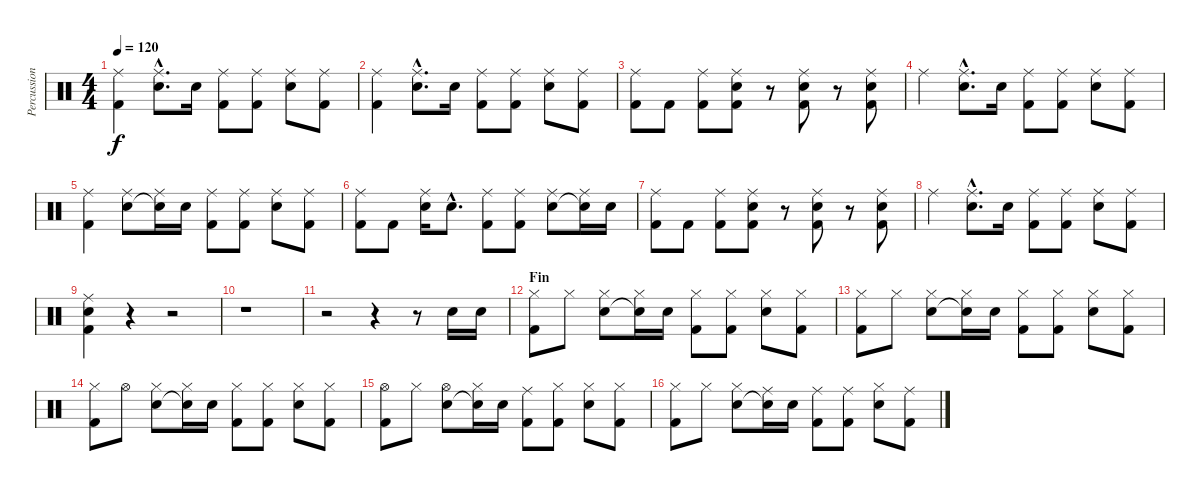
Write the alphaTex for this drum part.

\track ("Percussions" "Percussion") {instrument percussion}
\staff {score}
\articulation defaults
\ts (4 4)
\tempo 120
\clef neutral
\ks c
("Ride (middle)" "Kick (hit) 2").4{dy f} ("Ride (middle)"{hac} "Snare (hit) 2"{hac}).8{d} "Snare (hit) 2".16 ("Ride (middle)" "Kick (hit) 2").8 ("Ride (middle)" "Kick (hit) 2").8 ("Ride (middle)" "Snare (hit) 2").8 ("Ride (middle)" "Kick (hit) 2").8 |
("Ride (middle)" "Kick (hit) 2").4 ("Ride (middle)"{hac} "Snare (hit) 2"{hac}).8{d} "Snare (hit) 2".16 ("Ride (middle)" "Kick (hit) 2").8 ("Ride (middle)" "Kick (hit) 2").8 ("Ride (middle)" "Snare (hit) 2").8 ("Ride (middle)" "Kick (hit) 2").8 |
("Ride (middle)" "Kick (hit) 2").8 "Kick (hit) 2".8 ("Ride (middle)" "Kick (hit) 2").8 ("Ride (middle)" "Snare (hit) 2" "Kick (hit) 2").8 r.8 ("Ride (middle)" "Snare (hit) 2" "Kick (hit) 2").8 r.8 ("Ride (middle)" "Snare (hit) 2" "Kick (hit) 2").8 |
"Ride (middle)".4 ("Ride (middle)"{hac} "Snare (hit) 2"{hac}).8{d} "Snare (hit) 2".16 ("Ride (middle)" "Kick (hit) 2").8 ("Ride (middle)" "Kick (hit) 2").8 ("Ride (middle)" "Snare (hit) 2").8 ("Ride (middle)" "Kick (hit) 2").8 |
("Ride (middle)" "Kick (hit) 2").4 ("Ride (middle)" "Snare (hit) 2").8 ("Ride (middle)" "Snare (hit)"{t}).16 "Snare (hit) 2".16 ("Ride (middle)" "Kick (hit) 2").8 ("Ride (middle)" "Kick (hit) 2").8 ("Ride (middle)" "Snare (hit) 2").8 ("Ride (middle)" "Kick (hit) 2").8 |
("Ride (middle)" "Kick (hit) 2").8 "Kick (hit) 2".8 ("Ride (middle)" "Snare (hit) 2").16 "Snare (hit) 2"{hac}.8{d} ("Ride (middle)" "Kick (hit) 2").8 ("Ride (middle)" "Kick (hit) 2").8 ("Ride (middle)" "Snare (hit) 2").8 ("Ride (middle)" "Snare (hit) 2"{t}).16 "Snare (hit) 2".16 |
("Ride (middle)" "Kick (hit) 2").8 "Kick (hit) 2".8 ("Ride (middle)" "Kick (hit) 2").8 ("Ride (middle)" "Snare (hit) 2" "Kick (hit) 2").8 r.8 ("Ride (middle)" "Snare (hit) 2" "Kick (hit) 2").8 r.8 ("Ride (middle)" "Snare (hit) 2" "Kick (hit) 2").8 |
"Ride (middle)".4 ("Ride (middle)"{hac} "Snare (hit) 2"{hac}).8{d} "Snare (hit) 2".16 ("Ride (middle)" "Kick (hit) 2").8 ("Ride (middle)" "Kick (hit) 2").8 ("Ride (middle)" "Snare (hit) 2").8 ("Ride (middle)" "Kick (hit) 2").8 |
("Ride (middle)" "Snare (hit) 2" "Kick (hit) 2").4 r.4 r.2 |
r.1 |
r.2 r.4 r.8 "Snare (hit) 2".16 "Snare (hit) 2".16 |
\section ("" "Fin")
("Hi-Hat (closed)" "Kick (hit) 2").8 "Hi-Hat (closed)".8 ("Hi-Hat (closed)" "Snare (hit) 2").8 ("Hi-Hat (closed)" "Snare (hit)"{t}).16 "Snare (hit) 2".16 ("Hi-Hat (closed)" "Kick (hit) 2").8 ("Hi-Hat (closed)" "Kick (hit) 2").8 ("Hi-Hat (closed)" "Snare (hit) 2").8 ("Hi-Hat (closed)" "Kick (hit) 2").8 |
("Hi-Hat (closed)" "Kick (hit) 2").8 "Hi-Hat (closed)".8 ("Hi-Hat (closed)" "Snare (hit) 2").8 ("Hi-Hat (closed)" "Snare (hit)"{t}).16 "Snare (hit) 2".16 ("Hi-Hat (closed)" "Kick (hit) 2").8 ("Hi-Hat (closed)" "Kick (hit) 2").8 ("Hi-Hat (closed)" "Snare (hit) 2").8 ("Hi-Hat (closed)" "Kick (hit) 2").8 |
("Hi-Hat (closed)" "Kick (hit) 2").8 "Hi-Hat (open)".8 ("Hi-Hat (closed)" "Snare (hit) 2").8 ("Hi-Hat (closed)" "Snare (hit)"{t}).16 "Snare (hit) 2".16 ("Hi-Hat (closed)" "Kick (hit) 2").8 ("Hi-Hat (closed)" "Kick (hit) 2").8 ("Hi-Hat (closed)" "Snare (hit) 2").8 ("Hi-Hat (closed)" "Kick (hit) 2").8 |
("Hi-Hat (open)" "Kick (hit) 2").8 "Hi-Hat (closed)".8 ("Hi-Hat (open)" "Snare (hit) 2").8 ("Hi-Hat (closed)" "Snare (hit)"{t}).16 "Snare (hit) 2".16 ("Ride (middle)" "Kick (hit) 2").8 ("Hi-Hat (closed)" "Kick (hit) 2").8 ("Hi-Hat (closed)" "Snare (hit) 2").8 ("Hi-Hat (closed)" "Kick (hit) 2").8 |
("Hi-Hat (closed)" "Kick (hit) 2").8 "Hi-Hat (closed)".8 ("Hi-Hat (closed)" "Snare (hit) 2").8 ("Ride (middle)" "Snare (hit)"{t}).16 "Snare (hit) 2".16 ("Ride (middle)" "Kick (hit) 2").8 ("Ride (middle)" "Kick (hit) 2").8 ("Hi-Hat (closed)" "Snare (hit) 2").8 ("Ride (middle)" "Kick (hit) 2").8
